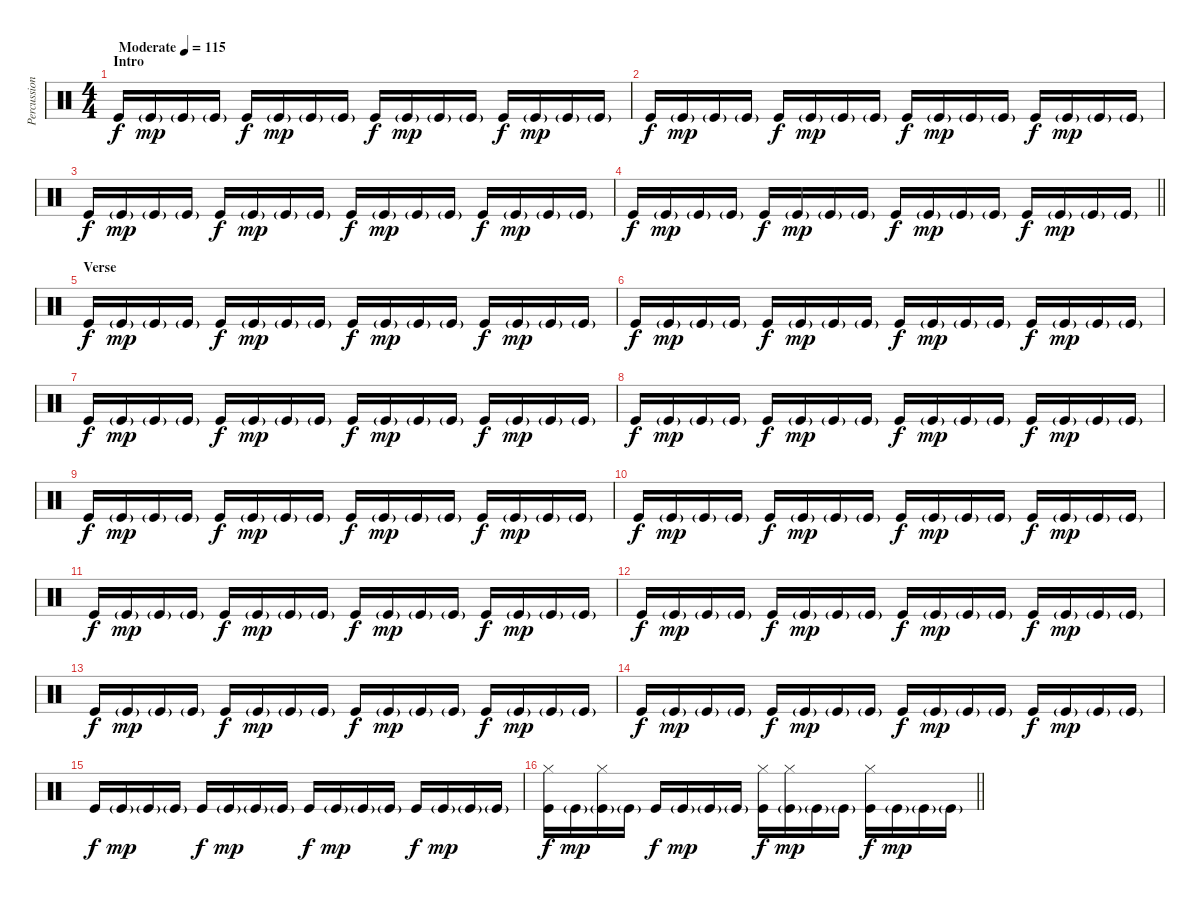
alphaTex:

\track ("Percussion" "Percussion") {instrument percussion}
\staff {score}
\articulation defaults
\ts (4 4)
\section ("" "Intro")
\tempo (115 "Moderate")
\clef neutral
\ks c "Kick (hit)".16{dy f} "Kick (hit)"{g}.16{dy mp} "Kick (hit)"{g}.16 "Kick (hit)"{g}.16 "Kick (hit)".16{dy f} "Kick (hit)"{g}.16{dy mp} "Kick (hit)"{g}.16 "Kick (hit)"{g}.16 "Kick (hit)".16{dy f} "Kick (hit)"{g}.16{dy mp} "Kick (hit)"{g}.16 "Kick (hit)"{g}.16 "Kick (hit)".16{dy f} "Kick (hit)"{g}.16{dy mp} "Kick (hit)"{g}.16 "Kick (hit)"{g}.16
|
"Kick (hit)".16{dy f} "Kick (hit)"{g}.16{dy mp} "Kick (hit)"{g}.16 "Kick (hit)"{g}.16 "Kick (hit)".16{dy f} "Kick (hit)"{g}.16{dy mp} "Kick (hit)"{g}.16 "Kick (hit)"{g}.16 "Kick (hit)".16{dy f} "Kick (hit)"{g}.16{dy mp} "Kick (hit)"{g}.16 "Kick (hit)"{g}.16 "Kick (hit)".16{dy f} "Kick (hit)"{g}.16{dy mp} "Kick (hit)"{g}.16 "Kick (hit)"{g}.16 |
"Kick (hit)".16{dy f} "Kick (hit)"{g}.16{dy mp} "Kick (hit)"{g}.16 "Kick (hit)"{g}.16 "Kick (hit)".16{dy f} "Kick (hit)"{g}.16{dy mp} "Kick (hit)"{g}.16 "Kick (hit)"{g}.16 "Kick (hit)".16{dy f} "Kick (hit)"{g}.16{dy mp} "Kick (hit)"{g}.16 "Kick (hit)"{g}.16 "Kick (hit)".16{dy f} "Kick (hit)"{g}.16{dy mp} "Kick (hit)"{g}.16 "Kick (hit)"{g}.16 |
\barLineRight lightlight "Kick (hit)".16{dy f} "Kick (hit)"{g}.16{dy mp} "Kick (hit)"{g}.16 "Kick (hit)"{g}.16 "Kick (hit)".16{dy f} "Kick (hit)"{g}.16{dy mp} "Kick (hit)"{g}.16 "Kick (hit)"{g}.16 "Kick (hit)".16{dy f} "Kick (hit)"{g}.16{dy mp} "Kick (hit)"{g}.16 "Kick (hit)"{g}.16 "Kick (hit)".16{dy f} "Kick (hit)"{g}.16{dy mp} "Kick (hit)"{g}.16 "Kick (hit)"{g}.16
|
\section ("" "Verse")
"Kick (hit)".16{dy f} "Kick (hit)"{g}.16{dy mp} "Kick (hit)"{g}.16 "Kick (hit)"{g}.16 "Kick (hit)".16{dy f} "Kick (hit)"{g}.16{dy mp} "Kick (hit)"{g}.16 "Kick (hit)"{g}.16 "Kick (hit)".16{dy f} "Kick (hit)"{g}.16{dy mp} "Kick (hit)"{g}.16 "Kick (hit)"{g}.16 "Kick (hit)".16{dy f} "Kick (hit)"{g}.16{dy mp} "Kick (hit)"{g}.16 "Kick (hit)"{g}.16 |
"Kick (hit)".16{dy f} "Kick (hit)"{g}.16{dy mp} "Kick (hit)"{g}.16 "Kick (hit)"{g}.16 "Kick (hit)".16{dy f} "Kick (hit)"{g}.16{dy mp} "Kick (hit)"{g}.16 "Kick (hit)"{g}.16 "Kick (hit)".16{dy f} "Kick (hit)"{g}.16{dy mp} "Kick (hit)"{g}.16 "Kick (hit)"{g}.16 "Kick (hit)".16{dy f} "Kick (hit)"{g}.16{dy mp} "Kick (hit)"{g}.16 "Kick (hit)"{g}.16 |
"Kick (hit)".16{dy f} "Kick (hit)"{g}.16{dy mp} "Kick (hit)"{g}.16 "Kick (hit)"{g}.16 "Kick (hit)".16{dy f} "Kick (hit)"{g}.16{dy mp} "Kick (hit)"{g}.16 "Kick (hit)"{g}.16 "Kick (hit)".16{dy f} "Kick (hit)"{g}.16{dy mp} "Kick (hit)"{g}.16 "Kick (hit)"{g}.16 "Kick (hit)".16{dy f} "Kick (hit)"{g}.16{dy mp} "Kick (hit)"{g}.16 "Kick (hit)"{g}.16 |
"Kick (hit)".16{dy f} "Kick (hit)"{g}.16{dy mp} "Kick (hit)"{g}.16 "Kick (hit)"{g}.16 "Kick (hit)".16{dy f} "Kick (hit)"{g}.16{dy mp} "Kick (hit)"{g}.16 "Kick (hit)"{g}.16 "Kick (hit)".16{dy f} "Kick (hit)"{g}.16{dy mp} "Kick (hit)"{g}.16 "Kick (hit)"{g}.16 "Kick (hit)".16{dy f} "Kick (hit)"{g}.16{dy mp} "Kick (hit)"{g}.16 "Kick (hit)"{g}.16 |
"Kick (hit)".16{dy f} "Kick (hit)"{g}.16{dy mp} "Kick (hit)"{g}.16 "Kick (hit)"{g}.16 "Kick (hit)".16{dy f} "Kick (hit)"{g}.16{dy mp} "Kick (hit)"{g}.16 "Kick (hit)"{g}.16 "Kick (hit)".16{dy f} "Kick (hit)"{g}.16{dy mp} "Kick (hit)"{g}.16 "Kick (hit)"{g}.16 "Kick (hit)".16{dy f} "Kick (hit)"{g}.16{dy mp} "Kick (hit)"{g}.16 "Kick (hit)"{g}.16 |
"Kick (hit)".16{dy f} "Kick (hit)"{g}.16{dy mp} "Kick (hit)"{g}.16 "Kick (hit)"{g}.16 "Kick (hit)".16{dy f} "Kick (hit)"{g}.16{dy mp} "Kick (hit)"{g}.16 "Kick (hit)"{g}.16 "Kick (hit)".16{dy f} "Kick (hit)"{g}.16{dy mp} "Kick (hit)"{g}.16 "Kick (hit)"{g}.16 "Kick (hit)".16{dy f} "Kick (hit)"{g}.16{dy mp} "Kick (hit)"{g}.16 "Kick (hit)"{g}.16 |
"Kick (hit)".16{dy f} "Kick (hit)"{g}.16{dy mp} "Kick (hit)"{g}.16 "Kick (hit)"{g}.16 "Kick (hit)".16{dy f} "Kick (hit)"{g}.16{dy mp} "Kick (hit)"{g}.16 "Kick (hit)"{g}.16 "Kick (hit)".16{dy f} "Kick (hit)"{g}.16{dy mp} "Kick (hit)"{g}.16 "Kick (hit)"{g}.16 "Kick (hit)".16{dy f} "Kick (hit)"{g}.16{dy mp} "Kick (hit)"{g}.16 "Kick (hit)"{g}.16 |
"Kick (hit)".16{dy f} "Kick (hit)"{g}.16{dy mp} "Kick (hit)"{g}.16 "Kick (hit)"{g}.16 "Kick (hit)".16{dy f} "Kick (hit)"{g}.16{dy mp} "Kick (hit)"{g}.16 "Kick (hit)"{g}.16 "Kick (hit)".16{dy f} "Kick (hit)"{g}.16{dy mp} "Kick (hit)"{g}.16 "Kick (hit)"{g}.16 "Kick (hit)".16{dy f} "Kick (hit)"{g}.16{dy mp} "Kick (hit)"{g}.16 "Kick (hit)"{g}.16 |
"Kick (hit)".16{dy f} "Kick (hit)"{g}.16{dy mp} "Kick (hit)"{g}.16 "Kick (hit)"{g}.16 "Kick (hit)".16{dy f} "Kick (hit)"{g}.16{dy mp} "Kick (hit)"{g}.16 "Kick (hit)"{g}.16 "Kick (hit)".16{dy f} "Kick (hit)"{g}.16{dy mp} "Kick (hit)"{g}.16 "Kick (hit)"{g}.16 "Kick (hit)".16{dy f} "Kick (hit)"{g}.16{dy mp} "Kick (hit)"{g}.16 "Kick (hit)"{g}.16 |
"Kick (hit)".16{dy f} "Kick (hit)"{g}.16{dy mp} "Kick (hit)"{g}.16 "Kick (hit)"{g}.16 "Kick (hit)".16{dy f} "Kick (hit)"{g}.16{dy mp} "Kick (hit)"{g}.16 "Kick (hit)"{g}.16 "Kick (hit)".16{dy f} "Kick (hit)"{g}.16{dy mp} "Kick (hit)"{g}.16 "Kick (hit)"{g}.16 "Kick (hit)".16{dy f} "Kick (hit)"{g}.16{dy mp} "Kick (hit)"{g}.16 "Kick (hit)"{g}.16 |
"Kick (hit)".16{dy f} "Kick (hit)"{g}.16{dy mp} "Kick (hit)"{g}.16 "Kick (hit)"{g}.16 "Kick (hit)".16{dy f} "Kick (hit)"{g}.16{dy mp} "Kick (hit)"{g}.16 "Kick (hit)"{g}.16 "Kick (hit)".16{dy f} "Kick (hit)"{g}.16{dy mp} "Kick (hit)"{g}.16 "Kick (hit)"{g}.16 "Kick (hit)".16{dy f} "Kick (hit)"{g}.16{dy mp} "Kick (hit)"{g}.16 "Kick (hit)"{g}.16 |
\barLineRight lightlight
("Kick (hit)" "Hi-Hat (closed)").16{dy f} "Kick (hit)"{g}.16{dy mp} ("Kick (hit)"{g} "Hi-Hat (closed)").16 "Kick (hit)"{g}.16 "Kick (hit)".16{dy f} "Kick (hit)"{g}.16{dy mp} "Kick (hit)"{g}.16 "Kick (hit)"{g}.16 ("Kick (hit)" "Hi-Hat (closed)").16{dy f} ("Kick (hit)"{g} "Hi-Hat (closed)").16{dy mp} "Kick (hit)"{g}.16 "Kick (hit)"{g}.16 ("Kick (hit)" "Hi-Hat (closed)").16{dy f} "Kick (hit)"{g}.16{dy mp} "Kick (hit)"{g}.16 "Kick (hit)"{g}.16
